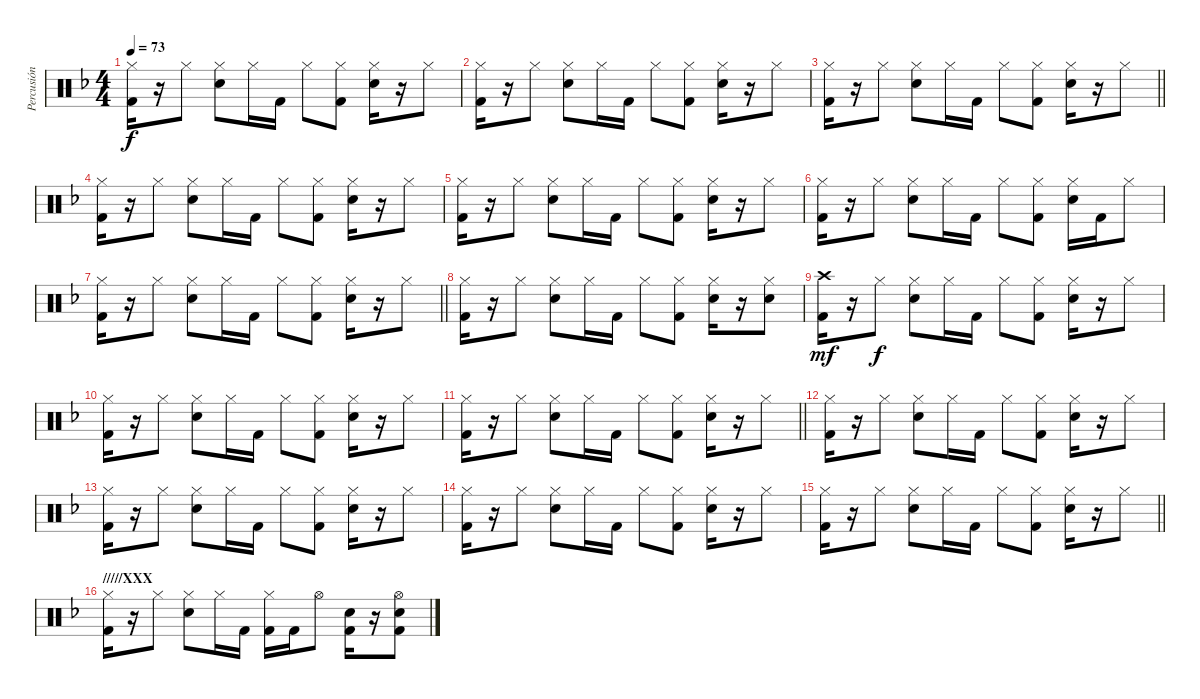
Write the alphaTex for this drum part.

\track ("Percusión" "Percusión") {instrument percussion}
\staff {score}
\articulation defaults
\ts (4 4)
\tempo 73
\clef neutral
\ks f
("Hi-Hat (closed)" "Kick (hit) 2").16{dy f} r.16 "Hi-Hat (closed)".8 ("Hi-Hat (closed)" "Snare (hit) 2").8 "Hi-Hat (closed)".16 "Kick (hit) 2".16 "Hi-Hat (closed)".8 ("Hi-Hat (closed)" "Kick (hit) 2").8 ("Hi-Hat (closed)" "Snare (hit) 2").16 r.16 "Hi-Hat (closed)".8 |
("Hi-Hat (closed)" "Kick (hit) 2").16 r.16 "Hi-Hat (closed)".8 ("Hi-Hat (closed)" "Snare (hit) 2").8 "Hi-Hat (closed)".16 "Kick (hit) 2".16 "Hi-Hat (closed)".8 ("Hi-Hat (closed)" "Kick (hit) 2").8 ("Hi-Hat (closed)" "Snare (hit) 2").16 r.16 "Hi-Hat (closed)".8 |
\barLineRight lightlight
("Hi-Hat (closed)" "Kick (hit) 2").16 r.16 "Hi-Hat (closed)".8 ("Hi-Hat (closed)" "Snare (hit) 2").8 "Hi-Hat (closed)".16 "Kick (hit) 2".16 "Hi-Hat (closed)".8 ("Hi-Hat (closed)" "Kick (hit) 2").8 ("Hi-Hat (closed)" "Snare (hit) 2").16 r.16 "Hi-Hat (closed)".8 |
("Hi-Hat (closed)" "Kick (hit) 2").16 r.16 "Hi-Hat (closed)".8 ("Hi-Hat (closed)" "Snare (hit) 2").8 "Hi-Hat (closed)".16 "Kick (hit) 2".16 "Hi-Hat (closed)".8 ("Hi-Hat (closed)" "Kick (hit) 2").8 ("Hi-Hat (closed)" "Snare (hit) 2").16 r.16 "Hi-Hat (closed)".8 |
("Hi-Hat (closed)" "Kick (hit) 2").16 r.16 "Hi-Hat (closed)".8 ("Hi-Hat (closed)" "Snare (hit) 2").8 "Hi-Hat (closed)".16 "Kick (hit) 2".16 "Hi-Hat (closed)".8 ("Hi-Hat (closed)" "Kick (hit) 2").8 ("Hi-Hat (closed)" "Snare (hit) 2").16 r.16 "Hi-Hat (closed)".8 |
("Hi-Hat (closed)" "Kick (hit) 2").16 r.16 "Hi-Hat (closed)".8 ("Hi-Hat (closed)" "Snare (hit) 2").8 "Hi-Hat (closed)".16 "Kick (hit) 2".16 "Hi-Hat (closed)".8 ("Hi-Hat (closed)" "Kick (hit) 2").8 ("Hi-Hat (closed)" "Snare (hit) 2").16 "Kick (hit) 2".16 "Hi-Hat (closed)".8 |
\barLineRight lightlight
("Hi-Hat (closed)" "Kick (hit) 2").16 r.16 "Hi-Hat (closed)".8 ("Hi-Hat (closed)" "Snare (hit) 2").8 "Hi-Hat (closed)".16 "Kick (hit) 2".16 "Hi-Hat (closed)".8 ("Hi-Hat (closed)" "Kick (hit) 2").8 ("Hi-Hat (closed)" "Snare (hit) 2").16 r.16 "Hi-Hat (closed)".8 |
("Hi-Hat (closed)" "Kick (hit) 2").16 r.16 "Hi-Hat (closed)".8 ("Hi-Hat (closed)" "Snare (hit) 2").8 "Hi-Hat (closed)".16 "Kick (hit) 2".16 "Hi-Hat (closed)".8 ("Hi-Hat (closed)" "Kick (hit) 2").8 ("Hi-Hat (closed)" "Snare (hit) 2").16 r.16 ("Hi-Hat (closed)" "Snare (hit) 2").8 |
("Crash high (hit)" "Kick (hit) 2").16{dy mf} r.16 "Hi-Hat (closed)".8{dy f} ("Hi-Hat (closed)" "Snare (hit) 2").8 "Hi-Hat (closed)".16 "Kick (hit) 2".16 "Hi-Hat (closed)".8 ("Hi-Hat (closed)" "Kick (hit) 2").8 ("Hi-Hat (closed)" "Snare (hit) 2").16 r.16 "Hi-Hat (closed)".8 |
("Hi-Hat (closed)" "Kick (hit) 2").16 r.16 "Hi-Hat (closed)".8 ("Hi-Hat (closed)" "Snare (hit) 2").8 "Hi-Hat (closed)".16 "Kick (hit) 2".16 "Hi-Hat (closed)".8 ("Hi-Hat (closed)" "Kick (hit) 2").8 ("Hi-Hat (closed)" "Snare (hit) 2").16 r.16 "Hi-Hat (closed)".8 |
\barLineRight lightlight
("Hi-Hat (closed)" "Kick (hit) 2").16 r.16 "Hi-Hat (closed)".8 ("Hi-Hat (closed)" "Snare (hit) 2").8 "Hi-Hat (closed)".16 "Kick (hit) 2".16 "Hi-Hat (closed)".8 ("Hi-Hat (closed)" "Kick (hit) 2").8 ("Hi-Hat (closed)" "Snare (hit) 2").16 r.16 "Hi-Hat (closed)".8 |
\section ("" "")
("Hi-Hat (closed)" "Kick (hit) 2").16 r.16 "Hi-Hat (closed)".8 ("Hi-Hat (closed)" "Snare (hit) 2").8 "Hi-Hat (closed)".16 "Kick (hit) 2".16 "Hi-Hat (closed)".8 ("Hi-Hat (closed)" "Kick (hit) 2").8 ("Hi-Hat (closed)" "Snare (hit) 2").16 r.16 "Hi-Hat (closed)".8 |
("Hi-Hat (closed)" "Kick (hit) 2").16 r.16 "Hi-Hat (closed)".8 ("Hi-Hat (closed)" "Snare (hit) 2").8 "Hi-Hat (closed)".16 "Kick (hit) 2".16 "Hi-Hat (closed)".8 ("Hi-Hat (closed)" "Kick (hit) 2").8 ("Hi-Hat (closed)" "Snare (hit) 2").16 r.16 "Hi-Hat (closed)".8 |
("Hi-Hat (closed)" "Kick (hit) 2").16 r.16 "Hi-Hat (closed)".8 ("Hi-Hat (closed)" "Snare (hit) 2").8 "Hi-Hat (closed)".16 "Kick (hit) 2".16 "Hi-Hat (closed)".8 ("Hi-Hat (closed)" "Kick (hit) 2").8 ("Hi-Hat (closed)" "Snare (hit) 2").16 r.16 "Hi-Hat (closed)".8 |
\barLineRight lightlight
("Hi-Hat (closed)" "Kick (hit) 2").16 r.16 "Hi-Hat (closed)".8 ("Hi-Hat (closed)" "Snare (hit) 2").8 "Hi-Hat (closed)".16 "Kick (hit) 2".16 "Hi-Hat (closed)".8 ("Hi-Hat (closed)" "Kick (hit) 2").8 ("Hi-Hat (closed)" "Snare (hit) 2").16 r.16 "Hi-Hat (closed)".8 |
\section ("" "/////XXX")
("Hi-Hat (closed)" "Kick (hit) 2").16 r.16 "Hi-Hat (closed)".8 ("Hi-Hat (closed)" "Snare (hit) 2").8 "Hi-Hat (closed)".16 "Kick (hit) 2".16 ("Hi-Hat (closed)" "Kick (hit) 2").16 "Kick (hit) 2".16 "Hi-Hat (open)".8 ("Snare (hit) 2" "Kick (hit) 2").16 r.16 ("Hi-Hat (open)" "Snare (hit) 2" "Kick (hit) 2").8
